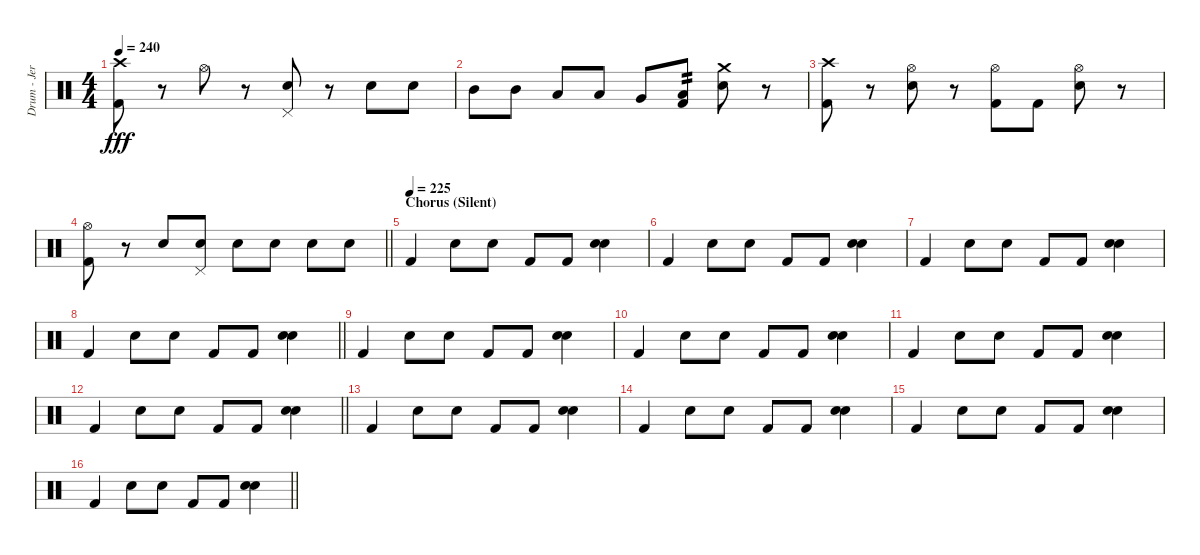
\track ("Drum - Jerinx" "Drum - Jer") {instrument percussion}
\staff {score}
\articulation defaults
\ts (4 4)
\tempo 240
\clef neutral
\ks c
("Kick (hit) 2" "Crash high (hit)").8{dy fff} r.8 "Hi-Hat (open)".8 r.8 ("Pedal Hi-Hat (hit)" "Snare (hit) 2").8 r.8 "Snare (hit) 2".8 "Snare (hit) 2".8 |
"Mid Tom (hit)".8 "Mid Tom (hit)".8 "Low Tom (hit)".8 "Low Tom (hit)".8 "Very Low Tom (hit)".8 ("Kick (hit) 2" "Low Floor Tom (hit)").8{tp 2} ("Snare (hit) 2" "Crash medium (hit)").8 r.8 |
("Kick (hit) 2" "Crash high (hit)").8 r.8 ("Hi-Hat (open)" "Snare (hit) 2").8 r.8 ("Hi-Hat (open)" "Kick (hit) 2").8 "Kick (hit) 2".8 ("Hi-Hat (open)" "Snare (hit) 2").8 r.8 |
\barLineRight lightlight
("Hi-Hat (open)" "Kick (hit) 2").8 r.8 "Snare (hit) 2".8 ("Pedal Hi-Hat (hit)" "Snare (hit) 2").8 "Snare (hit) 2".8 "Snare (hit) 2".8 "Snare (hit) 2".8 "Snare (hit) 2".8 |
\section ("" "Chorus (Silent)")
\tempo (225)
"Kick (hit) 2".4 "Snare (hit) 2".8 "Snare (hit) 2".8 "Kick (hit) 2".8 "Kick (hit) 2".8 ("Snare (hit) 2" "Snare (hit) 2").4{bu 240} |
"Kick (hit) 2".4 "Snare (hit) 2".8 "Snare (hit) 2".8 "Kick (hit) 2".8 "Kick (hit) 2".8 ("Snare (hit) 2" "Snare (hit) 2").4{bu 240} |
"Kick (hit) 2".4 "Snare (hit) 2".8 "Snare (hit) 2".8 "Kick (hit) 2".8 "Kick (hit) 2".8 ("Snare (hit) 2" "Snare (hit) 2").4{bu 240} |
\barLineRight lightlight "Kick (hit) 2".4 "Snare (hit) 2".8 "Snare (hit) 2".8 "Kick (hit) 2".8 "Kick (hit) 2".8
("Snare (hit) 2" "Snare (hit) 2").4{bu 240} |
"Kick (hit) 2".4 "Snare (hit) 2".8 "Snare (hit) 2".8 "Kick (hit) 2".8 "Kick (hit) 2".8 ("Snare (hit) 2" "Snare (hit) 2").4{bu 240} |
"Kick (hit) 2".4 "Snare (hit) 2".8 "Snare (hit) 2".8 "Kick (hit) 2".8 "Kick (hit) 2".8 ("Snare (hit) 2" "Snare (hit) 2").4{bu 240} |
"Kick (hit) 2".4 "Snare (hit) 2".8 "Snare (hit) 2".8 "Kick (hit) 2".8 "Kick (hit) 2".8 ("Snare (hit) 2" "Snare (hit) 2").4{bu 240} |
\barLineRight lightlight "Kick (hit) 2".4 "Snare (hit) 2".8 "Snare (hit) 2".8 "Kick (hit) 2".8 "Kick (hit) 2".8
("Snare (hit) 2" "Snare (hit) 2").4{bu 240} |
"Kick (hit) 2".4 "Snare (hit) 2".8 "Snare (hit) 2".8 "Kick (hit) 2".8 "Kick (hit) 2".8 ("Snare (hit) 2" "Snare (hit) 2").4{bu 240} |
"Kick (hit) 2".4 "Snare (hit) 2".8 "Snare (hit) 2".8 "Kick (hit) 2".8 "Kick (hit) 2".8 ("Snare (hit) 2" "Snare (hit) 2").4{bu 240} |
"Kick (hit) 2".4 "Snare (hit) 2".8 "Snare (hit) 2".8 "Kick (hit) 2".8 "Kick (hit) 2".8 ("Snare (hit) 2" "Snare (hit) 2").4{bu 240} |
\barLineRight lightlight "Kick (hit) 2".4 "Snare (hit) 2".8 "Snare (hit) 2".8 "Kick (hit) 2".8 "Kick (hit) 2".8
("Snare (hit) 2" "Snare (hit) 2").4{bu 240}
